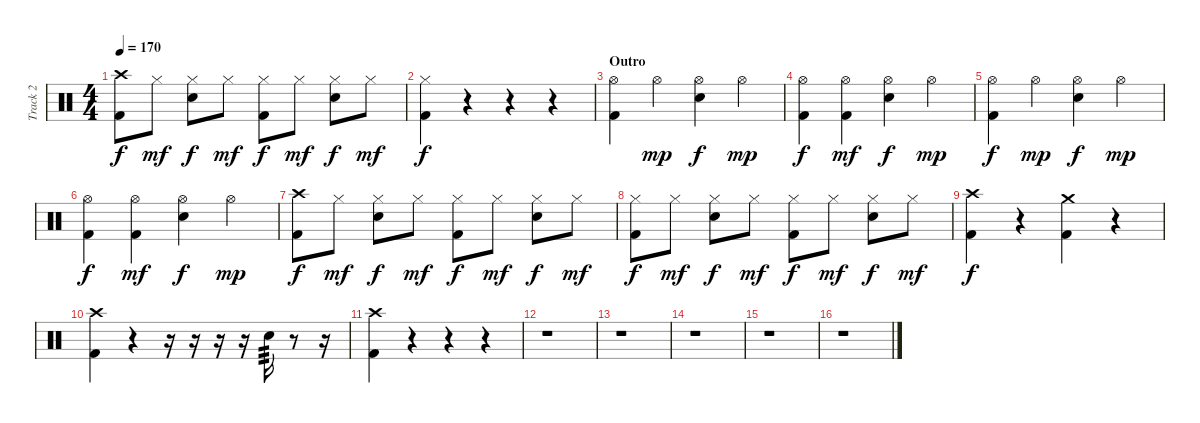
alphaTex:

\track ("Track 2" "Track 2") {instrument percussion}
\staff {score}
\articulation defaults
\ts (4 4)
\tempo 170
\clef neutral
\ks c
("Crash high (hit)" "Kick (hit) 2").8{dy f} "Hi-Hat (closed)".8{dy mf} ("Hi-Hat (closed)" "Electric Snare (hit)").8{dy f} "Hi-Hat (closed)".8{dy mf} ("Hi-Hat (closed)" "Kick (hit) 2").8{dy f} "Hi-Hat (closed)".8{dy mf} ("Hi-Hat (closed)" "Electric Snare (hit)").8{dy f} "Hi-Hat (closed)".8{dy mf} |
("Hi-Hat (closed)" "Kick (hit) 2").4{dy f} r.4 r.4 r.4 |
\section ("" "Outro")
("Hi-Hat (open)" "Kick (hit) 2").4 "Hi-Hat (open)".4{dy mp} ("Hi-Hat (open)" "Electric Snare (hit)").4{dy f} "Hi-Hat (open)".4{dy mp} |
("Hi-Hat (open)" "Kick (hit) 2").4{dy f} ("Hi-Hat (open)" "Kick (hit) 2").4{dy mf} ("Hi-Hat (open)" "Electric Snare (hit)").4{dy f} "Hi-Hat (open)".4{dy mp} |
("Hi-Hat (open)" "Kick (hit) 2").4{dy f} "Hi-Hat (open)".4{dy mp} ("Hi-Hat (open)" "Electric Snare (hit)").4{dy f} "Hi-Hat (open)".4{dy mp} |
("Hi-Hat (open)" "Kick (hit) 2").4{dy f} ("Hi-Hat (open)" "Kick (hit) 2").4{dy mf} ("Hi-Hat (open)" "Electric Snare (hit)").4{dy f} "Hi-Hat (open)".4{dy mp} |
("Crash high (hit)" "Kick (hit) 2").8{dy f} "Hi-Hat (closed)".8{dy mf} ("Hi-Hat (closed)" "Electric Snare (hit)").8{dy f} "Hi-Hat (closed)".8{dy mf} ("Hi-Hat (closed)" "Kick (hit) 2").8{dy f} "Hi-Hat (closed)".8{dy mf} ("Hi-Hat (closed)" "Electric Snare (hit)").8{dy f} "Hi-Hat (closed)".8{dy mf} |
("Hi-Hat (closed)" "Kick (hit) 2").8{dy f} "Hi-Hat (closed)".8{dy mf} ("Hi-Hat (closed)" "Electric Snare (hit)").8{dy f} "Hi-Hat (closed)".8{dy mf} ("Hi-Hat (closed)" "Kick (hit) 2").8{dy f} "Hi-Hat (closed)".8{dy mf} ("Hi-Hat (closed)" "Electric Snare (hit)").8{dy f} "Hi-Hat (closed)".8{dy mf} |
("Crash high (hit)" "Kick (hit) 2").4{dy f} r.4 ("Crash medium (hit)" "Kick (hit) 2").4 r.4 |
("Crash high (hit)" "Kick (hit) 2").4 r.4 r.16 r.16 r.16 r.16 "Electric Snare (hit)".16{tp 3} r.8 r.16 |
("Crash high (hit)" "Kick (hit) 2").4 r.4 r.4 r.4 |
r.1 |
r.1 |
r.1 |
r.1 |
r.1
